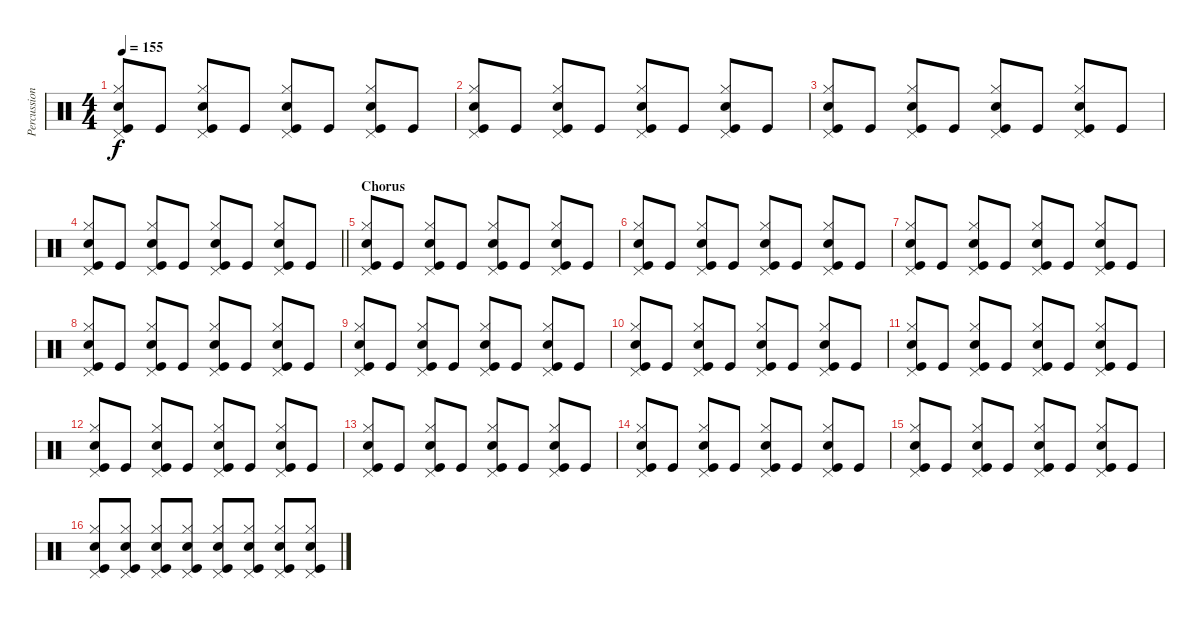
\track ("Percussions" "Percussion") {instrument percussion}
\staff {score}
\articulation defaults
\ts (4 4)
\tempo 155
\clef neutral
\ks c
("Snare (hit) 2" "Hi-Hat (closed)" "Pedal Hi-Hat (hit)" "Kick (hit)").8{dy f} "Kick (hit)".8 ("Snare (hit) 2" "Hi-Hat (closed)" "Pedal Hi-Hat (hit)" "Kick (hit)").8 "Kick (hit)".8 ("Snare (hit) 2" "Hi-Hat (closed)" "Pedal Hi-Hat (hit)" "Kick (hit)").8 "Kick (hit)".8 ("Snare (hit) 2" "Hi-Hat (closed)" "Pedal Hi-Hat (hit)" "Kick (hit)").8 "Kick (hit)".8 |
("Snare (hit) 2" "Hi-Hat (closed)" "Pedal Hi-Hat (hit)" "Kick (hit)").8 "Kick (hit)".8 ("Snare (hit) 2" "Hi-Hat (closed)" "Pedal Hi-Hat (hit)" "Kick (hit)").8 "Kick (hit)".8 ("Snare (hit) 2" "Hi-Hat (closed)" "Pedal Hi-Hat (hit)" "Kick (hit)").8 "Kick (hit)".8 ("Snare (hit) 2" "Hi-Hat (closed)" "Pedal Hi-Hat (hit)" "Kick (hit)").8 "Kick (hit)".8 |
("Snare (hit) 2" "Hi-Hat (closed)" "Pedal Hi-Hat (hit)" "Kick (hit)").8 "Kick (hit)".8 ("Snare (hit) 2" "Hi-Hat (closed)" "Pedal Hi-Hat (hit)" "Kick (hit)").8 "Kick (hit)".8 ("Snare (hit) 2" "Hi-Hat (closed)" "Pedal Hi-Hat (hit)" "Kick (hit)").8 "Kick (hit)".8 ("Snare (hit) 2" "Hi-Hat (closed)" "Pedal Hi-Hat (hit)" "Kick (hit)").8 "Kick (hit)".8 |
\barLineRight lightlight
("Snare (hit) 2" "Hi-Hat (closed)" "Pedal Hi-Hat (hit)" "Kick (hit)").8 "Kick (hit)".8 ("Snare (hit) 2" "Hi-Hat (closed)" "Pedal Hi-Hat (hit)" "Kick (hit)").8 "Kick (hit)".8 ("Snare (hit) 2" "Hi-Hat (closed)" "Pedal Hi-Hat (hit)" "Kick (hit)").8 "Kick (hit)".8 ("Snare (hit) 2" "Hi-Hat (closed)" "Pedal Hi-Hat (hit)" "Kick (hit)").8 "Kick (hit)".8 |
\section ("" "Chorus")
("Snare (hit) 2" "Hi-Hat (closed)" "Pedal Hi-Hat (hit)" "Kick (hit)").8 "Kick (hit)".8 ("Snare (hit) 2" "Hi-Hat (closed)" "Pedal Hi-Hat (hit)" "Kick (hit)").8 "Kick (hit)".8 ("Snare (hit) 2" "Hi-Hat (closed)" "Pedal Hi-Hat (hit)" "Kick (hit)").8 "Kick (hit)".8 ("Snare (hit) 2" "Hi-Hat (closed)" "Pedal Hi-Hat (hit)" "Kick (hit)").8 "Kick (hit)".8 |
("Snare (hit) 2" "Hi-Hat (closed)" "Pedal Hi-Hat (hit)" "Kick (hit)").8 "Kick (hit)".8 ("Snare (hit) 2" "Hi-Hat (closed)" "Pedal Hi-Hat (hit)" "Kick (hit)").8 "Kick (hit)".8 ("Snare (hit) 2" "Hi-Hat (closed)" "Pedal Hi-Hat (hit)" "Kick (hit)").8 "Kick (hit)".8 ("Snare (hit) 2" "Hi-Hat (closed)" "Pedal Hi-Hat (hit)" "Kick (hit)").8 "Kick (hit)".8 |
("Snare (hit) 2" "Hi-Hat (closed)" "Pedal Hi-Hat (hit)" "Kick (hit)").8 "Kick (hit)".8 ("Snare (hit) 2" "Hi-Hat (closed)" "Pedal Hi-Hat (hit)" "Kick (hit)").8 "Kick (hit)".8 ("Snare (hit) 2" "Hi-Hat (closed)" "Pedal Hi-Hat (hit)" "Kick (hit)").8 "Kick (hit)".8 ("Snare (hit) 2" "Hi-Hat (closed)" "Pedal Hi-Hat (hit)" "Kick (hit)").8 "Kick (hit)".8 |
("Snare (hit) 2" "Hi-Hat (closed)" "Pedal Hi-Hat (hit)" "Kick (hit)").8 "Kick (hit)".8 ("Snare (hit) 2" "Hi-Hat (closed)" "Pedal Hi-Hat (hit)" "Kick (hit)").8 "Kick (hit)".8 ("Snare (hit) 2" "Hi-Hat (closed)" "Pedal Hi-Hat (hit)" "Kick (hit)").8 "Kick (hit)".8 ("Snare (hit) 2" "Hi-Hat (closed)" "Pedal Hi-Hat (hit)" "Kick (hit)").8 "Kick (hit)".8 |
("Snare (hit) 2" "Hi-Hat (closed)" "Pedal Hi-Hat (hit)" "Kick (hit)").8 "Kick (hit)".8 ("Snare (hit) 2" "Hi-Hat (closed)" "Pedal Hi-Hat (hit)" "Kick (hit)").8 "Kick (hit)".8 ("Snare (hit) 2" "Hi-Hat (closed)" "Pedal Hi-Hat (hit)" "Kick (hit)").8 "Kick (hit)".8 ("Snare (hit) 2" "Hi-Hat (closed)" "Pedal Hi-Hat (hit)" "Kick (hit)").8 "Kick (hit)".8 |
("Snare (hit) 2" "Hi-Hat (closed)" "Pedal Hi-Hat (hit)" "Kick (hit)").8 "Kick (hit)".8 ("Snare (hit) 2" "Hi-Hat (closed)" "Pedal Hi-Hat (hit)" "Kick (hit)").8 "Kick (hit)".8 ("Snare (hit) 2" "Hi-Hat (closed)" "Pedal Hi-Hat (hit)" "Kick (hit)").8 "Kick (hit)".8 ("Snare (hit) 2" "Hi-Hat (closed)" "Pedal Hi-Hat (hit)" "Kick (hit)").8 "Kick (hit)".8 |
("Snare (hit) 2" "Hi-Hat (closed)" "Pedal Hi-Hat (hit)" "Kick (hit)").8 "Kick (hit)".8 ("Snare (hit) 2" "Hi-Hat (closed)" "Pedal Hi-Hat (hit)" "Kick (hit)").8 "Kick (hit)".8 ("Snare (hit) 2" "Hi-Hat (closed)" "Pedal Hi-Hat (hit)" "Kick (hit)").8 "Kick (hit)".8 ("Snare (hit) 2" "Hi-Hat (closed)" "Pedal Hi-Hat (hit)" "Kick (hit)").8 "Kick (hit)".8 |
("Snare (hit) 2" "Hi-Hat (closed)" "Pedal Hi-Hat (hit)" "Kick (hit)").8 "Kick (hit)".8 ("Snare (hit) 2" "Hi-Hat (closed)" "Pedal Hi-Hat (hit)" "Kick (hit)").8 "Kick (hit)".8 ("Snare (hit) 2" "Hi-Hat (closed)" "Pedal Hi-Hat (hit)" "Kick (hit)").8 "Kick (hit)".8 ("Snare (hit) 2" "Hi-Hat (closed)" "Pedal Hi-Hat (hit)" "Kick (hit)").8 "Kick (hit)".8 |
("Snare (hit) 2" "Hi-Hat (closed)" "Pedal Hi-Hat (hit)" "Kick (hit)").8 "Kick (hit)".8 ("Snare (hit) 2" "Hi-Hat (closed)" "Pedal Hi-Hat (hit)" "Kick (hit)").8 "Kick (hit)".8 ("Snare (hit) 2" "Hi-Hat (closed)" "Pedal Hi-Hat (hit)" "Kick (hit)").8 "Kick (hit)".8 ("Snare (hit) 2" "Hi-Hat (closed)" "Pedal Hi-Hat (hit)" "Kick (hit)").8 "Kick (hit)".8 |
("Snare (hit) 2" "Hi-Hat (closed)" "Pedal Hi-Hat (hit)" "Kick (hit)").8 "Kick (hit)".8 ("Snare (hit) 2" "Hi-Hat (closed)" "Pedal Hi-Hat (hit)" "Kick (hit)").8 "Kick (hit)".8 ("Snare (hit) 2" "Hi-Hat (closed)" "Pedal Hi-Hat (hit)" "Kick (hit)").8 "Kick (hit)".8 ("Snare (hit) 2" "Hi-Hat (closed)" "Pedal Hi-Hat (hit)" "Kick (hit)").8 "Kick (hit)".8 |
("Snare (hit) 2" "Hi-Hat (closed)" "Pedal Hi-Hat (hit)" "Kick (hit)").8 "Kick (hit)".8 ("Snare (hit) 2" "Hi-Hat (closed)" "Pedal Hi-Hat (hit)" "Kick (hit)").8 "Kick (hit)".8 ("Snare (hit) 2" "Hi-Hat (closed)" "Pedal Hi-Hat (hit)" "Kick (hit)").8 "Kick (hit)".8 ("Snare (hit) 2" "Hi-Hat (closed)" "Pedal Hi-Hat (hit)" "Kick (hit)").8 "Kick (hit)".8 |
("Snare (hit) 2" "Hi-Hat (closed)" "Pedal Hi-Hat (hit)" "Kick (hit)").8 ("Snare (hit) 2" "Hi-Hat (closed)" "Pedal Hi-Hat (hit)" "Kick (hit)").8 ("Snare (hit) 2" "Hi-Hat (closed)" "Pedal Hi-Hat (hit)" "Kick (hit)").8 ("Snare (hit) 2" "Hi-Hat (closed)" "Pedal Hi-Hat (hit)" "Kick (hit)").8 ("Snare (hit) 2" "Hi-Hat (closed)" "Pedal Hi-Hat (hit)" "Kick (hit)").8 ("Snare (hit) 2" "Hi-Hat (closed)" "Pedal Hi-Hat (hit)" "Kick (hit)").8 ("Snare (hit) 2" "Hi-Hat (closed)" "Pedal Hi-Hat (hit)" "Kick (hit)").8 ("Snare (hit) 2" "Hi-Hat (closed)" "Pedal Hi-Hat (hit)" "Kick (hit)").8
